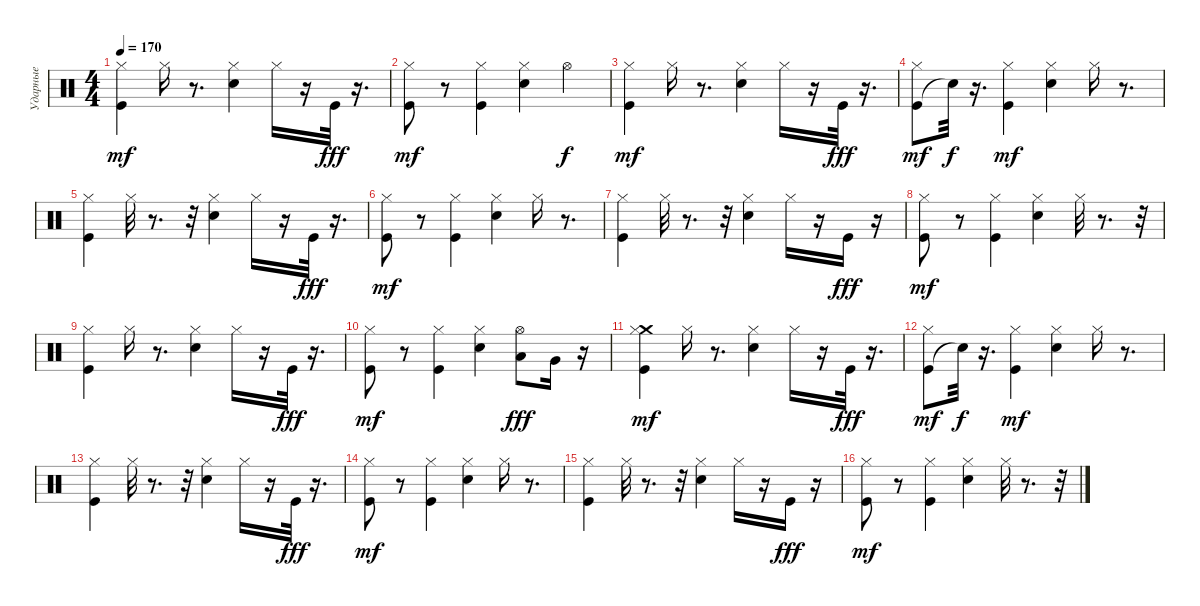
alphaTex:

\track ("Ударные" "Ударные") {instrument percussion}
\staff {score}
\articulation defaults
\ts (4 4)
\tempo 170
\clef neutral
\ks c
("Kick (hit)" "Hi-Hat (closed)").4{dy mf} "Hi-Hat (closed)".16 r.8{d} ("Snare (hit) 2" "Hi-Hat (closed)").4 "Hi-Hat (closed)".16 r.16 "Kick (hit)".32{dy fff} r.16{d} |
("Kick (hit)" "Hi-Hat (closed)").8{dy mf} r.8 ("Kick (hit)" "Hi-Hat (closed)").4 ("Snare (hit) 2" "Hi-Hat (closed)").4 "Hi-Hat (open)".4{dy f} |
("Kick (hit)" "Hi-Hat (closed)").4{dy mf} "Hi-Hat (closed)".16 r.8{d} ("Snare (hit) 2" "Hi-Hat (closed)").4 "Hi-Hat (closed)".16 r.16 "Kick (hit)".32{dy fff} r.16{d} |
("Kick (hit)" "Hi-Hat (closed)").8{dy mf} "Snare (hit)"{t}.32{dy f} r.16{d} ("Kick (hit)" "Hi-Hat (closed)").4{dy mf} ("Snare (hit) 2" "Hi-Hat (closed)").4 "Hi-Hat (closed)".16 r.8{d} |
("Kick (hit)" "Hi-Hat (closed)").4 "Hi-Hat (closed)".32 r.8{d} r.32 ("Snare (hit) 2" "Hi-Hat (closed)").4 "Hi-Hat (closed)".16 r.16 "Kick (hit)".32{dy fff} r.16{d} |
("Kick (hit)" "Hi-Hat (closed)").8{dy mf} r.8 ("Kick (hit)" "Hi-Hat (closed)").4 ("Snare (hit) 2" "Hi-Hat (closed)").4 "Hi-Hat (closed)".16 r.8{d} |
("Kick (hit)" "Hi-Hat (closed)").4 "Hi-Hat (closed)".32 r.8{d} r.32 ("Snare (hit) 2" "Hi-Hat (closed)").4 "Hi-Hat (closed)".16 r.16 "Kick (hit)".16{dy fff} r.16 |
("Kick (hit)" "Hi-Hat (closed)").8{dy mf} r.8 ("Kick (hit)" "Hi-Hat (closed)").4 ("Snare (hit) 2" "Hi-Hat (closed)").4 "Hi-Hat (closed)".32 r.8{d} r.32 |
("Kick (hit)" "Hi-Hat (closed)").4 "Hi-Hat (closed)".16 r.8{d} ("Snare (hit) 2" "Hi-Hat (closed)").4 "Hi-Hat (closed)".16 r.16 "Kick (hit)".32{dy fff} r.16{d} |
("Kick (hit)" "Hi-Hat (closed)").8{dy mf} r.8 ("Kick (hit)" "Hi-Hat (closed)").4 ("Snare (hit) 2" "Hi-Hat (closed)").4 ("Low Tom (hit)" "Hi-Hat (open)").8{dy fff} "Very Low Tom (hit)".16 r.16 |
("Kick (hit)" "Crash medium (hit)" "Hi-Hat (closed)").4{dy mf} "Hi-Hat (closed)".16 r.8{d} ("Snare (hit) 2" "Hi-Hat (closed)").4 "Hi-Hat (closed)".16 r.16 "Kick (hit)".32{dy fff} r.16{d} |
("Kick (hit)" "Hi-Hat (closed)").8{dy mf} "Snare (hit)"{t}.32{dy f} r.16{d} ("Kick (hit)" "Hi-Hat (closed)").4{dy mf} ("Snare (hit) 2" "Hi-Hat (closed)").4 "Hi-Hat (closed)".16 r.8{d} |
("Kick (hit)" "Hi-Hat (closed)").4 "Hi-Hat (closed)".32 r.8{d} r.32 ("Snare (hit) 2" "Hi-Hat (closed)").4 "Hi-Hat (closed)".16 r.16 "Kick (hit)".32{dy fff} r.16{d} |
("Kick (hit)" "Hi-Hat (closed)").8{dy mf} r.8 ("Kick (hit)" "Hi-Hat (closed)").4 ("Snare (hit) 2" "Hi-Hat (closed)").4 "Hi-Hat (closed)".16 r.8{d} |
("Kick (hit)" "Hi-Hat (closed)").4 "Hi-Hat (closed)".32 r.8{d} r.32 ("Snare (hit) 2" "Hi-Hat (closed)").4 "Hi-Hat (closed)".16 r.16 "Kick (hit)".16{dy fff} r.16 |
("Kick (hit)" "Hi-Hat (closed)").8{dy mf} r.8 ("Kick (hit)" "Hi-Hat (closed)").4 ("Snare (hit) 2" "Hi-Hat (closed)").4 "Hi-Hat (closed)".32 r.8{d} r.32
